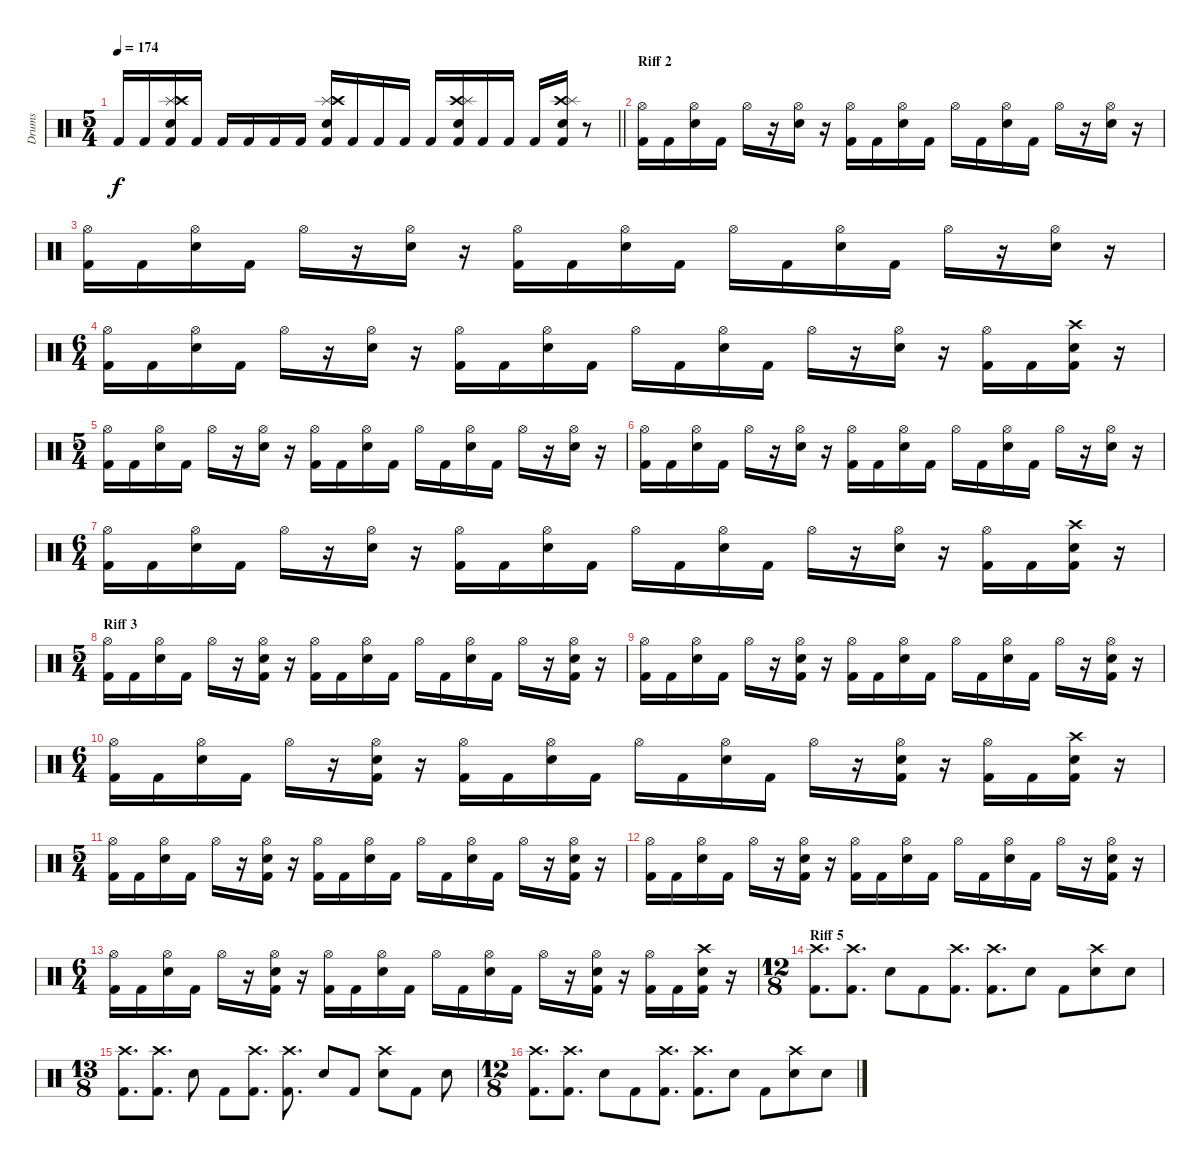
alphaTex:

\track ("Drums" "Drums") {instrument percussion}
\staff {score}
\articulation defaults
\ts (5 4)
\tempo 174
\clef neutral
\barLineRight lightlight
\ks c "Kick (hit) 2".16{dy f} "Kick (hit) 2".16
("Splash (hit)" "Crash high (hit)" "Electric Snare (hit)" "Kick (hit) 2").16 "Kick (hit) 2".16 "Kick (hit) 2".16 "Kick (hit) 2".16 "Kick (hit) 2".16 "Kick (hit) 2".16 ("Splash (hit)" "Crash high (hit)" "Electric Snare (hit)" "Kick (hit) 2").16 "Kick (hit) 2".16 "Kick (hit) 2".16 "Kick (hit) 2".16 "Kick (hit) 2".16 ("Crash high (hit)" "Splash (hit)" "Electric Snare (hit)" "Kick (hit) 2").16 "Kick (hit) 2".16 "Kick (hit) 2".16 "Kick (hit) 2".16 ("Crash high (hit)" "Splash (hit)" "Electric Snare (hit)" "Kick (hit) 2").16 r.8 |
\section ("" "Riff 2")
("Hi-Hat (open)" "Kick (hit) 2").16 "Kick (hit) 2".16 ("Hi-Hat (open)" "Electric Snare (hit)").16 "Kick (hit) 2".16 "Hi-Hat (open)".16 r.16 ("Hi-Hat (open)" "Electric Snare (hit)").16 r.16 ("Hi-Hat (open)" "Kick (hit) 2").16 "Kick (hit) 2".16 ("Hi-Hat (open)" "Electric Snare (hit)").16 "Kick (hit) 2".16 "Hi-Hat (open)".16 "Kick (hit) 2".16 ("Hi-Hat (open)" "Electric Snare (hit)").16 "Kick (hit) 2".16 "Hi-Hat (open)".16 r.16 ("Hi-Hat (open)" "Electric Snare (hit)").16 r.16 |
("Hi-Hat (open)" "Kick (hit) 2").16 "Kick (hit) 2".16 ("Hi-Hat (open)" "Electric Snare (hit)").16 "Kick (hit) 2".16 "Hi-Hat (open)".16 r.16 ("Hi-Hat (open)" "Electric Snare (hit)").16 r.16 ("Hi-Hat (open)" "Kick (hit) 2").16 "Kick (hit) 2".16 ("Hi-Hat (open)" "Electric Snare (hit)").16 "Kick (hit) 2".16 "Hi-Hat (open)".16 "Kick (hit) 2".16 ("Hi-Hat (open)" "Electric Snare (hit)").16 "Kick (hit) 2".16 "Hi-Hat (open)".16 r.16 ("Hi-Hat (open)" "Electric Snare (hit)").16 r.16 |
\ts (6 4)
("Hi-Hat (open)" "Kick (hit) 2").16 "Kick (hit) 2".16 ("Hi-Hat (open)" "Electric Snare (hit)").16 "Kick (hit) 2".16 "Hi-Hat (open)".16 r.16 ("Hi-Hat (open)" "Electric Snare (hit)").16 r.16 ("Hi-Hat (open)" "Kick (hit) 2").16 "Kick (hit) 2".16 ("Hi-Hat (open)" "Electric Snare (hit)").16 "Kick (hit) 2".16 "Hi-Hat (open)".16 "Kick (hit) 2".16 ("Hi-Hat (open)" "Electric Snare (hit)").16 "Kick (hit) 2".16 "Hi-Hat (open)".16 r.16 ("Hi-Hat (open)" "Electric Snare (hit)").16 r.16 ("Hi-Hat (open)" "Kick (hit) 2").16 "Kick (hit) 2".16 ("Crash high (hit)" "Electric Snare (hit)" "Kick (hit) 2").16 r.16 |
\ts (5 4)
("Hi-Hat (open)" "Kick (hit) 2").16 "Kick (hit) 2".16 ("Hi-Hat (open)" "Electric Snare (hit)").16 "Kick (hit) 2".16 "Hi-Hat (open)".16 r.16 ("Hi-Hat (open)" "Electric Snare (hit)").16 r.16 ("Hi-Hat (open)" "Kick (hit) 2").16 "Kick (hit) 2".16 ("Hi-Hat (open)" "Electric Snare (hit)").16 "Kick (hit) 2".16 "Hi-Hat (open)".16 "Kick (hit) 2".16 ("Hi-Hat (open)" "Electric Snare (hit)").16 "Kick (hit) 2".16 "Hi-Hat (open)".16 r.16 ("Hi-Hat (open)" "Electric Snare (hit)").16 r.16 |
("Hi-Hat (open)" "Kick (hit) 2").16 "Kick (hit) 2".16 ("Hi-Hat (open)" "Electric Snare (hit)").16 "Kick (hit) 2".16 "Hi-Hat (open)".16 r.16 ("Hi-Hat (open)" "Electric Snare (hit)").16 r.16 ("Hi-Hat (open)" "Kick (hit) 2").16 "Kick (hit) 2".16 ("Hi-Hat (open)" "Electric Snare (hit)").16 "Kick (hit) 2".16 "Hi-Hat (open)".16 "Kick (hit) 2".16 ("Hi-Hat (open)" "Electric Snare (hit)").16 "Kick (hit) 2".16 "Hi-Hat (open)".16 r.16 ("Hi-Hat (open)" "Electric Snare (hit)").16 r.16 |
\ts (6 4)
("Hi-Hat (open)" "Kick (hit) 2").16 "Kick (hit) 2".16 ("Hi-Hat (open)" "Electric Snare (hit)").16 "Kick (hit) 2".16 "Hi-Hat (open)".16 r.16 ("Hi-Hat (open)" "Electric Snare (hit)").16 r.16 ("Hi-Hat (open)" "Kick (hit) 2").16 "Kick (hit) 2".16 ("Hi-Hat (open)" "Electric Snare (hit)").16 "Kick (hit) 2".16 "Hi-Hat (open)".16 "Kick (hit) 2".16 ("Hi-Hat (open)" "Electric Snare (hit)").16 "Kick (hit) 2".16 "Hi-Hat (open)".16 r.16 ("Hi-Hat (open)" "Electric Snare (hit)").16 r.16 ("Hi-Hat (open)" "Kick (hit) 2").16 "Kick (hit) 2".16 ("Crash high (hit)" "Electric Snare (hit)" "Kick (hit) 2").16 r.16 |
\ts (5 4)
\section ("" "Riff 3")
("Hi-Hat (open)" "Kick (hit) 2").16 "Kick (hit) 2".16 ("Hi-Hat (open)" "Electric Snare (hit)").16 "Kick (hit) 2".16 "Hi-Hat (open)".16 r.16 ("Hi-Hat (open)" "Electric Snare (hit)" "Kick (hit) 2").16 r.16 ("Hi-Hat (open)" "Kick (hit) 2").16 "Kick (hit) 2".16 ("Hi-Hat (open)" "Electric Snare (hit)").16 "Kick (hit) 2".16 "Hi-Hat (open)".16 "Kick (hit) 2".16 ("Hi-Hat (open)" "Electric Snare (hit)").16 "Kick (hit) 2".16 "Hi-Hat (open)".16 r.16 ("Hi-Hat (open)" "Electric Snare (hit)" "Kick (hit) 2").16 r.16 |
("Hi-Hat (open)" "Kick (hit) 2").16 "Kick (hit) 2".16 ("Hi-Hat (open)" "Electric Snare (hit)").16 "Kick (hit) 2".16 "Hi-Hat (open)".16 r.16 ("Hi-Hat (open)" "Electric Snare (hit)" "Kick (hit) 2").16 r.16 ("Hi-Hat (open)" "Kick (hit) 2").16 "Kick (hit) 2".16 ("Hi-Hat (open)" "Electric Snare (hit)").16 "Kick (hit) 2".16 "Hi-Hat (open)".16 "Kick (hit) 2".16 ("Hi-Hat (open)" "Electric Snare (hit)").16 "Kick (hit) 2".16 "Hi-Hat (open)".16 r.16 ("Hi-Hat (open)" "Electric Snare (hit)" "Kick (hit) 2").16 r.16 |
\ts (6 4)
("Hi-Hat (open)" "Kick (hit) 2").16 "Kick (hit) 2".16 ("Hi-Hat (open)" "Electric Snare (hit)").16 "Kick (hit) 2".16 "Hi-Hat (open)".16 r.16 ("Hi-Hat (open)" "Electric Snare (hit)" "Kick (hit) 2").16 r.16 ("Hi-Hat (open)" "Kick (hit) 2").16 "Kick (hit) 2".16 ("Hi-Hat (open)" "Electric Snare (hit)").16 "Kick (hit) 2".16 "Hi-Hat (open)".16 "Kick (hit) 2".16 ("Hi-Hat (open)" "Electric Snare (hit)").16 "Kick (hit) 2".16 "Hi-Hat (open)".16 r.16 ("Hi-Hat (open)" "Electric Snare (hit)" "Kick (hit) 2").16 r.16 ("Hi-Hat (open)" "Kick (hit) 2").16 "Kick (hit) 2".16 ("Crash high (hit)" "Electric Snare (hit)" "Kick (hit) 2").16 r.16 |
\ts (5 4)
("Hi-Hat (open)" "Kick (hit) 2").16 "Kick (hit) 2".16 ("Hi-Hat (open)" "Electric Snare (hit)").16 "Kick (hit) 2".16 "Hi-Hat (open)".16 r.16 ("Hi-Hat (open)" "Electric Snare (hit)" "Kick (hit) 2").16 r.16 ("Hi-Hat (open)" "Kick (hit) 2").16 "Kick (hit) 2".16 ("Hi-Hat (open)" "Electric Snare (hit)").16 "Kick (hit) 2".16 "Hi-Hat (open)".16 "Kick (hit) 2".16 ("Hi-Hat (open)" "Electric Snare (hit)").16 "Kick (hit) 2".16 "Hi-Hat (open)".16 r.16 ("Hi-Hat (open)" "Electric Snare (hit)" "Kick (hit) 2").16 r.16 |
("Hi-Hat (open)" "Kick (hit) 2").16 "Kick (hit) 2".16 ("Hi-Hat (open)" "Electric Snare (hit)").16 "Kick (hit) 2".16 "Hi-Hat (open)".16 r.16 ("Hi-Hat (open)" "Electric Snare (hit)" "Kick (hit) 2").16 r.16 ("Hi-Hat (open)" "Kick (hit) 2").16 "Kick (hit) 2".16 ("Hi-Hat (open)" "Electric Snare (hit)").16 "Kick (hit) 2".16 "Hi-Hat (open)".16 "Kick (hit) 2".16 ("Hi-Hat (open)" "Electric Snare (hit)").16 "Kick (hit) 2".16 "Hi-Hat (open)".16 r.16 ("Hi-Hat (open)" "Electric Snare (hit)" "Kick (hit) 2").16 r.16 |
\ts (6 4)
("Hi-Hat (open)" "Kick (hit) 2").16 "Kick (hit) 2".16 ("Hi-Hat (open)" "Electric Snare (hit)").16 "Kick (hit) 2".16 "Hi-Hat (open)".16 r.16 ("Hi-Hat (open)" "Electric Snare (hit)" "Kick (hit) 2").16 r.16 ("Hi-Hat (open)" "Kick (hit) 2").16 "Kick (hit) 2".16 ("Hi-Hat (open)" "Electric Snare (hit)").16 "Kick (hit) 2".16 "Hi-Hat (open)".16 "Kick (hit) 2".16 ("Hi-Hat (open)" "Electric Snare (hit)").16 "Kick (hit) 2".16 "Hi-Hat (open)".16 r.16 ("Hi-Hat (open)" "Electric Snare (hit)" "Kick (hit) 2").16 r.16 ("Hi-Hat (open)" "Kick (hit) 2").16 "Kick (hit) 2".16 ("Crash high (hit)" "Electric Snare (hit)" "Kick (hit) 2").16 r.16 |
\ts (12 8)
\section ("" "Riff 5")
("Crash high (hit)" "Kick (hit) 2").8{d} ("Crash high (hit)" "Kick (hit) 2").8{d} "Electric Snare (hit)".8 "Kick (hit) 2".8 ("Crash high (hit)" "Kick (hit) 2").8{d} ("Crash high (hit)" "Kick (hit) 2").8{d} "Electric Snare (hit)".8 "Kick (hit) 2".8 ("Crash high (hit)" "Electric Snare (hit)").8 "Electric Snare (hit)".8 |
\ts (13 8)
("Crash high (hit)" "Kick (hit) 2").8{d} ("Crash high (hit)" "Kick (hit) 2").8{d} "Electric Snare (hit)".8 "Kick (hit) 2".8 ("Crash high (hit)" "Kick (hit) 2").8{d} ("Crash high (hit)" "Kick (hit) 2").8{d} "Electric Snare (hit)".8 "Kick (hit) 2".8 ("Crash high (hit)" "Electric Snare (hit)").8 "Kick (hit) 2".8 "Electric Snare (hit)".8 |
\ts (12 8)
("Crash high (hit)" "Kick (hit) 2").8{d} ("Crash high (hit)" "Kick (hit) 2").8{d} "Electric Snare (hit)".8 "Kick (hit) 2".8 ("Crash high (hit)" "Kick (hit) 2").8{d} ("Crash high (hit)" "Kick (hit) 2").8{d} "Electric Snare (hit)".8 "Kick (hit) 2".8 ("Crash high (hit)" "Electric Snare (hit)").8 "Electric Snare (hit)".8
